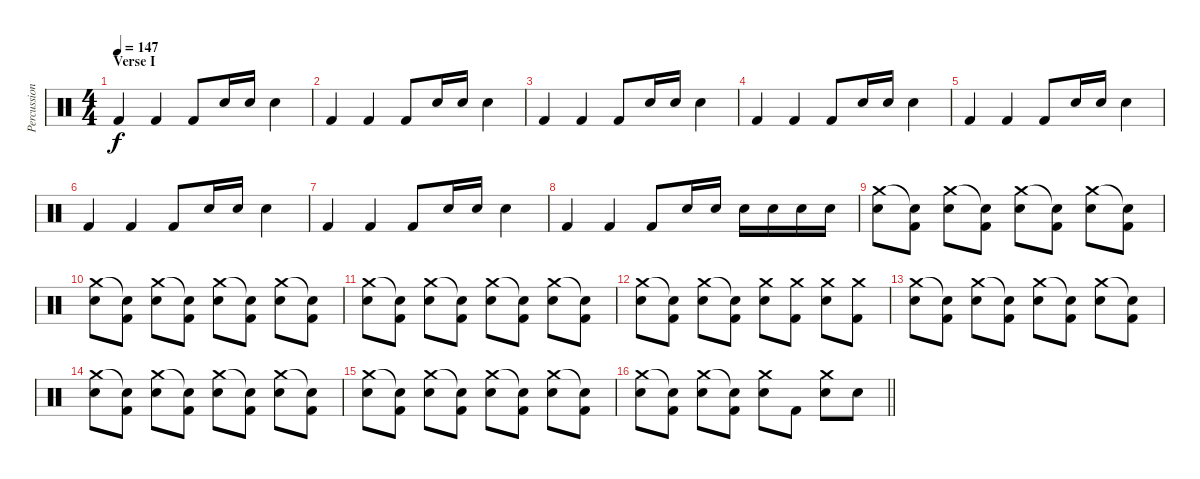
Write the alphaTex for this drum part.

\track ("Percussion" "Percussion") {instrument percussion}
\staff {score}
\articulation defaults
\ts (4 4)
\section ("" "Verse I")
\tempo 147
\clef neutral
\ks c "Kick (hit) 2".4{dy f} "Kick (hit) 2".4 "Kick (hit) 2".8 "Electric Snare (hit)".16 "Electric Snare (hit)".16 "Electric Snare (hit)".4
|
"Kick (hit) 2".4 "Kick (hit) 2".4 "Kick (hit) 2".8 "Electric Snare (hit)".16 "Electric Snare (hit)".16 "Electric Snare (hit)".4 |
"Kick (hit) 2".4 "Kick (hit) 2".4 "Kick (hit) 2".8 "Electric Snare (hit)".16 "Electric Snare (hit)".16 "Electric Snare (hit)".4 |
"Kick (hit) 2".4 "Kick (hit) 2".4 "Kick (hit) 2".8 "Electric Snare (hit)".16 "Electric Snare (hit)".16 "Electric Snare (hit)".4 |
"Kick (hit) 2".4 "Kick (hit) 2".4 "Kick (hit) 2".8 "Electric Snare (hit)".16 "Electric Snare (hit)".16 "Electric Snare (hit)".4 |
"Kick (hit) 2".4 "Kick (hit) 2".4 "Kick (hit) 2".8 "Electric Snare (hit)".16 "Electric Snare (hit)".16 "Electric Snare (hit)".4 |
"Kick (hit) 2".4 "Kick (hit) 2".4 "Kick (hit) 2".8 "Electric Snare (hit)".16 "Electric Snare (hit)".16 "Electric Snare (hit)".4 |
"Kick (hit) 2".4 "Kick (hit) 2".4 "Kick (hit) 2".8 "Electric Snare (hit)".16 "Electric Snare (hit)".16 "Electric Snare (hit)".16 "Electric Snare (hit)".16 "Electric Snare (hit)".16 "Electric Snare (hit)".16 |
("Crash medium (hit)" "Electric Snare (hit)").8 ("Snare (hit)"{t} "Kick (hit) 2").8 ("Crash medium (hit)" "Electric Snare (hit)").8 ("Snare (hit)"{t} "Kick (hit) 2").8 ("Crash medium (hit)" "Electric Snare (hit)").8 ("Snare (hit)"{t} "Kick (hit) 2").8 ("Crash medium (hit)" "Electric Snare (hit)").8 ("Snare (hit)"{t} "Kick (hit) 2").8 |
("Crash medium (hit)" "Electric Snare (hit)").8 ("Snare (hit)"{t} "Kick (hit) 2").8 ("Crash medium (hit)" "Electric Snare (hit)").8 ("Snare (hit)"{t} "Kick (hit) 2").8 ("Crash medium (hit)" "Electric Snare (hit)").8 ("Snare (hit)"{t} "Kick (hit) 2").8 ("Crash medium (hit)" "Electric Snare (hit)").8 ("Snare (hit)"{t} "Kick (hit) 2").8 |
("Crash medium (hit)" "Electric Snare (hit)").8 ("Snare (hit)"{t} "Kick (hit) 2").8 ("Crash medium (hit)" "Electric Snare (hit)").8 ("Snare (hit)"{t} "Kick (hit) 2").8 ("Crash medium (hit)" "Electric Snare (hit)").8 ("Snare (hit)"{t} "Kick (hit) 2").8 ("Crash medium (hit)" "Electric Snare (hit)").8 ("Snare (hit)"{t} "Kick (hit) 2").8 |
("Crash medium (hit)" "Electric Snare (hit)").8 ("Snare (hit)"{t} "Kick (hit) 2").8 ("Crash medium (hit)" "Electric Snare (hit)").8 ("Snare (hit)"{t} "Kick (hit) 2").8 ("Crash medium (hit)" "Electric Snare (hit)").8 ("Crash medium (hit)" "Kick (hit) 2").8 ("Crash medium (hit)" "Electric Snare (hit)").8 ("Crash medium (hit)" "Kick (hit) 2").8 |
("Crash medium (hit)" "Electric Snare (hit)").8 ("Snare (hit)"{t} "Kick (hit) 2").8 ("Crash medium (hit)" "Electric Snare (hit)").8 ("Snare (hit)"{t} "Kick (hit) 2").8 ("Crash medium (hit)" "Electric Snare (hit)").8 ("Snare (hit)"{t} "Kick (hit) 2").8 ("Crash medium (hit)" "Electric Snare (hit)").8 ("Snare (hit)"{t} "Kick (hit) 2").8 |
("Crash medium (hit)" "Electric Snare (hit)").8 ("Snare (hit)"{t} "Kick (hit) 2").8 ("Crash medium (hit)" "Electric Snare (hit)").8 ("Snare (hit)"{t} "Kick (hit) 2").8 ("Crash medium (hit)" "Electric Snare (hit)").8 ("Snare (hit)"{t} "Kick (hit) 2").8 ("Crash medium (hit)" "Electric Snare (hit)").8 ("Snare (hit)"{t} "Kick (hit) 2").8 |
("Crash medium (hit)" "Electric Snare (hit)").8 ("Snare (hit)"{t} "Kick (hit) 2").8 ("Crash medium (hit)" "Electric Snare (hit)").8 ("Snare (hit)"{t} "Kick (hit) 2").8 ("Crash medium (hit)" "Electric Snare (hit)").8 ("Snare (hit)"{t} "Kick (hit) 2").8 ("Crash medium (hit)" "Electric Snare (hit)").8 ("Snare (hit)"{t} "Kick (hit) 2").8 |
\barLineRight lightlight
("Crash medium (hit)" "Electric Snare (hit)").8 ("Snare (hit)"{t} "Kick (hit) 2").8 ("Crash medium (hit)" "Electric Snare (hit)").8 ("Snare (hit)"{t} "Kick (hit) 2").8 ("Crash medium (hit)" "Electric Snare (hit)").8 "Kick (hit) 2".8 ("Crash medium (hit)" "Electric Snare (hit)").8 "Electric Snare (hit)".8
